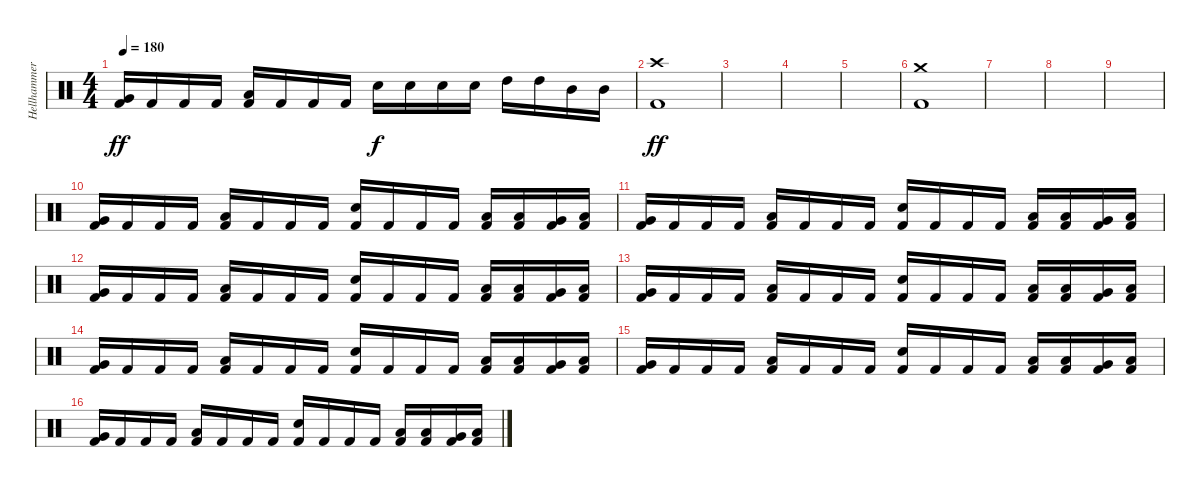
\track ("Hellhammer" "Hellhammer") {instrument percussion}
\staff {score}
\articulation defaults
\ts (4 4)
\tempo 180
\clef neutral
\ks c
("Very Low Tom (hit)" "Kick (hit) 2").16{dy ff} "Kick (hit) 2".16 "Kick (hit) 2".16 "Kick (hit) 2".16 ("Low Floor Tom (hit)" "Kick (hit) 2").16 "Kick (hit) 2".16 "Kick (hit) 2".16 "Kick (hit) 2".16 "Electric Snare (hit)".16{dy f} "Electric Snare (hit)".16 "Electric Snare (hit)".16 "Electric Snare (hit)".16 "High Tom (hit)".16 "High Tom (hit)".16 "Mid Tom (hit)".16 "Mid Tom (hit)".16 |
("Crash high (hit)" "Kick (hit) 2").1{dy ff} |
|
|
|
("Crash medium (hit)" "Kick (hit) 2").1 |
|
|
|
("Very Low Tom (hit)" "Kick (hit) 2").16 "Kick (hit) 2".16 "Kick (hit) 2".16 "Kick (hit) 2".16 ("Low Floor Tom (hit)" "Kick (hit) 2").16 "Kick (hit) 2".16 "Kick (hit) 2".16 "Kick (hit) 2".16 ("Electric Snare (hit)" "Kick (hit) 2").16 "Kick (hit) 2".16 "Kick (hit) 2".16 "Kick (hit) 2".16 ("Low Floor Tom (hit)" "Kick (hit) 2").16 ("Low Floor Tom (hit)" "Kick (hit) 2").16 ("Very Low Tom (hit)" "Kick (hit) 2").16 ("Low Tom (hit)" "Kick (hit) 2").16 |
("Very Low Tom (hit)" "Kick (hit) 2").16 "Kick (hit) 2".16 "Kick (hit) 2".16 "Kick (hit) 2".16 ("Low Floor Tom (hit)" "Kick (hit) 2").16 "Kick (hit) 2".16 "Kick (hit) 2".16 "Kick (hit) 2".16 ("Electric Snare (hit)" "Kick (hit) 2").16 "Kick (hit) 2".16 "Kick (hit) 2".16 "Kick (hit) 2".16 ("Low Floor Tom (hit)" "Kick (hit) 2").16 ("Low Floor Tom (hit)" "Kick (hit) 2").16 ("Very Low Tom (hit)" "Kick (hit) 2").16 ("Low Tom (hit)" "Kick (hit) 2").16 |
("Very Low Tom (hit)" "Kick (hit) 2").16 "Kick (hit) 2".16 "Kick (hit) 2".16 "Kick (hit) 2".16 ("Low Floor Tom (hit)" "Kick (hit) 2").16 "Kick (hit) 2".16 "Kick (hit) 2".16 "Kick (hit) 2".16 ("Electric Snare (hit)" "Kick (hit) 2").16 "Kick (hit) 2".16 "Kick (hit) 2".16 "Kick (hit) 2".16 ("Low Floor Tom (hit)" "Kick (hit) 2").16 ("Low Floor Tom (hit)" "Kick (hit) 2").16 ("Very Low Tom (hit)" "Kick (hit) 2").16 ("Low Tom (hit)" "Kick (hit) 2").16 |
("Very Low Tom (hit)" "Kick (hit) 2").16 "Kick (hit) 2".16 "Kick (hit) 2".16 "Kick (hit) 2".16 ("Low Floor Tom (hit)" "Kick (hit) 2").16 "Kick (hit) 2".16 "Kick (hit) 2".16 "Kick (hit) 2".16 ("Electric Snare (hit)" "Kick (hit) 2").16 "Kick (hit) 2".16 "Kick (hit) 2".16 "Kick (hit) 2".16 ("Low Floor Tom (hit)" "Kick (hit) 2").16 ("Low Floor Tom (hit)" "Kick (hit) 2").16 ("Very Low Tom (hit)" "Kick (hit) 2").16 ("Low Tom (hit)" "Kick (hit) 2").16 |
("Very Low Tom (hit)" "Kick (hit) 2").16 "Kick (hit) 2".16 "Kick (hit) 2".16 "Kick (hit) 2".16 ("Low Floor Tom (hit)" "Kick (hit) 2").16 "Kick (hit) 2".16 "Kick (hit) 2".16 "Kick (hit) 2".16 ("Electric Snare (hit)" "Kick (hit) 2").16 "Kick (hit) 2".16 "Kick (hit) 2".16 "Kick (hit) 2".16 ("Low Floor Tom (hit)" "Kick (hit) 2").16 ("Low Floor Tom (hit)" "Kick (hit) 2").16 ("Very Low Tom (hit)" "Kick (hit) 2").16 ("Low Tom (hit)" "Kick (hit) 2").16 |
("Very Low Tom (hit)" "Kick (hit) 2").16 "Kick (hit) 2".16 "Kick (hit) 2".16 "Kick (hit) 2".16 ("Low Floor Tom (hit)" "Kick (hit) 2").16 "Kick (hit) 2".16 "Kick (hit) 2".16 "Kick (hit) 2".16 ("Electric Snare (hit)" "Kick (hit) 2").16 "Kick (hit) 2".16 "Kick (hit) 2".16 "Kick (hit) 2".16 ("Low Floor Tom (hit)" "Kick (hit) 2").16 ("Low Floor Tom (hit)" "Kick (hit) 2").16 ("Very Low Tom (hit)" "Kick (hit) 2").16 ("Low Tom (hit)" "Kick (hit) 2").16 |
("Very Low Tom (hit)" "Kick (hit) 2").16 "Kick (hit) 2".16 "Kick (hit) 2".16 "Kick (hit) 2".16 ("Low Floor Tom (hit)" "Kick (hit) 2").16 "Kick (hit) 2".16 "Kick (hit) 2".16 "Kick (hit) 2".16 ("Electric Snare (hit)" "Kick (hit) 2").16 "Kick (hit) 2".16 "Kick (hit) 2".16 "Kick (hit) 2".16 ("Low Floor Tom (hit)" "Kick (hit) 2").16 ("Low Floor Tom (hit)" "Kick (hit) 2").16 ("Very Low Tom (hit)" "Kick (hit) 2").16 ("Low Tom (hit)" "Kick (hit) 2").16
